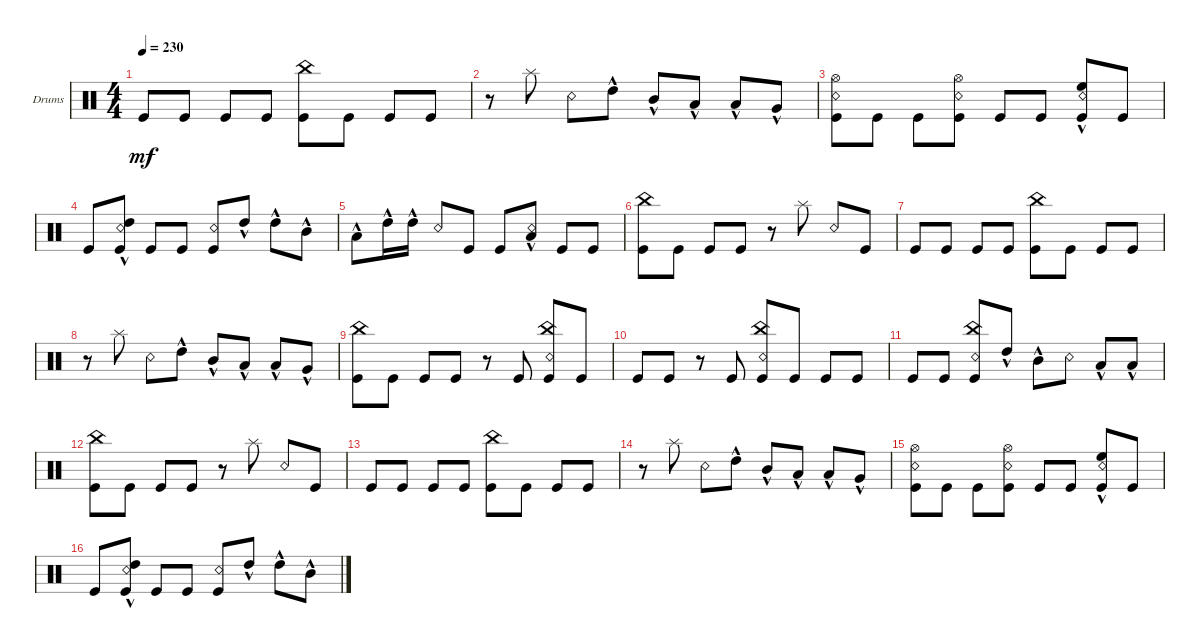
\bracketExtendMode groupsimilarinstruments
\firstSystemTrackNameOrientation horizontal
\otherSystemsTrackNameOrientation horizontal
\track ("Drumkit" "Drums") {instrument percussion}
\staff {score}
\articulation defaults
\ts (4 4)
\tempo 230
\clef neutral
\ks c "Kick (hit)".8{dy mf} "Kick (hit)".8 "Kick (hit)".8 "Kick (hit)".8
("China (hit)" "Kick (hit)").8 "Kick (hit)".8 "Kick (hit)".8 "Kick (hit)".8 |
r.8 "Splash (hit)".8 "Snare (rim shot)".8 "High Tom (hit)"{hac}.8 "Mid Tom (hit)"{hac}.8 "Low Tom (hit)"{hac}.8 "Low Tom (hit)"{hac}.8 "Very Low Tom (hit)"{hac}.8 |
("Kick (hit)" "Hi-Hat (open)" "Snare (rim shot)").8 "Kick (hit)".8 "Kick (hit)".8 ("Kick (hit)" "Snare (rim shot)" "Hi-Hat (open)").8 "Kick (hit)".8 "Kick (hit)".8 ("Kick (hit)" "Snare (rim shot)" "High Floor Tom (hit)"{hac}).8 "Kick (hit)".8 |
"Kick (hit)".8 ("Kick (hit)" "Snare (rim shot)" "High Tom (hit)"{hac}).8 "Kick (hit)".8 "Kick (hit)".8 ("Kick (hit)" "Snare (rim shot)").8 "High Tom (hit)"{hac}.8 "High Tom (hit)"{hac}.8 "Mid Tom (hit)"{hac}.8 |
"Low Tom (hit)"{hac}.8 "High Tom (hit)"{hac}.16 "High Tom (hit)"{hac}.16 "Snare (rim shot)".8 "Kick (hit)".8 "Kick (hit)".8 ("Low Tom (hit)"{hac} "Snare (rim shot)").8 "Kick (hit)".8 "Kick (hit)".8 |
("Kick (hit)" "China (hit)").8 "Kick (hit)".8 "Kick (hit)".8 "Kick (hit)".8 r.8 "Splash (hit)".8 "Snare (rim shot)".8 "Kick (hit)".8 |
"Kick (hit)".8 "Kick (hit)".8 "Kick (hit)".8 "Kick (hit)".8 ("China (hit)" "Kick (hit)").8 "Kick (hit)".8 "Kick (hit)".8 "Kick (hit)".8 |
r.8 "Splash (hit)".8 "Snare (rim shot)".8 "High Tom (hit)"{hac}.8 "Mid Tom (hit)"{hac}.8 "Low Tom (hit)"{hac}.8 "Low Tom (hit)"{hac}.8 "Very Low Tom (hit)"{hac}.8 |
("Kick (hit)" "China (hit)").8 "Kick (hit)".8 "Kick (hit)".8 "Kick (hit)".8 r.8 "Kick (hit)".8 ("Kick (hit)" "Snare (rim shot)" "China (hit)").8 "Kick (hit)".8 |
"Kick (hit)".8 "Kick (hit)".8 r.8 "Kick (hit)".8 ("Kick (hit)" "China (hit)" "Snare (rim shot)").8 "Kick (hit)".8 "Kick (hit)".8 "Kick (hit)".8 |
"Kick (hit)".8 "Kick (hit)".8 ("Kick (hit)" "Snare (rim shot)" "China (hit)").8 "High Tom (hit)"{hac}.8 "Mid Tom (hit)"{hac}.8 "Snare (rim shot)".8 "Low Tom (hit)"{hac}.8 "Low Tom (hit)"{hac}.8 |
("Kick (hit)" "China (hit)").8 "Kick (hit)".8 "Kick (hit)".8 "Kick (hit)".8 r.8 "Splash (hit)".8 "Snare (rim shot)".8 "Kick (hit)".8 |
"Kick (hit)".8 "Kick (hit)".8 "Kick (hit)".8 "Kick (hit)".8 ("China (hit)" "Kick (hit)").8 "Kick (hit)".8 "Kick (hit)".8 "Kick (hit)".8 |
r.8 "Splash (hit)".8 "Snare (rim shot)".8 "High Tom (hit)"{hac}.8 "Mid Tom (hit)"{hac}.8 "Low Tom (hit)"{hac}.8 "Low Tom (hit)"{hac}.8 "Very Low Tom (hit)"{hac}.8 |
("Kick (hit)" "Hi-Hat (open)" "Snare (rim shot)").8 "Kick (hit)".8 "Kick (hit)".8 ("Kick (hit)" "Snare (rim shot)" "Hi-Hat (open)").8 "Kick (hit)".8 "Kick (hit)".8 ("Kick (hit)" "Snare (rim shot)" "High Floor Tom (hit)"{hac}).8 "Kick (hit)".8 |
"Kick (hit)".8 ("Kick (hit)" "Snare (rim shot)" "High Tom (hit)"{hac}).8 "Kick (hit)".8 "Kick (hit)".8 ("Kick (hit)" "Snare (rim shot)").8 "High Tom (hit)"{hac}.8 "High Tom (hit)"{hac}.8 "Mid Tom (hit)"{hac}.8
